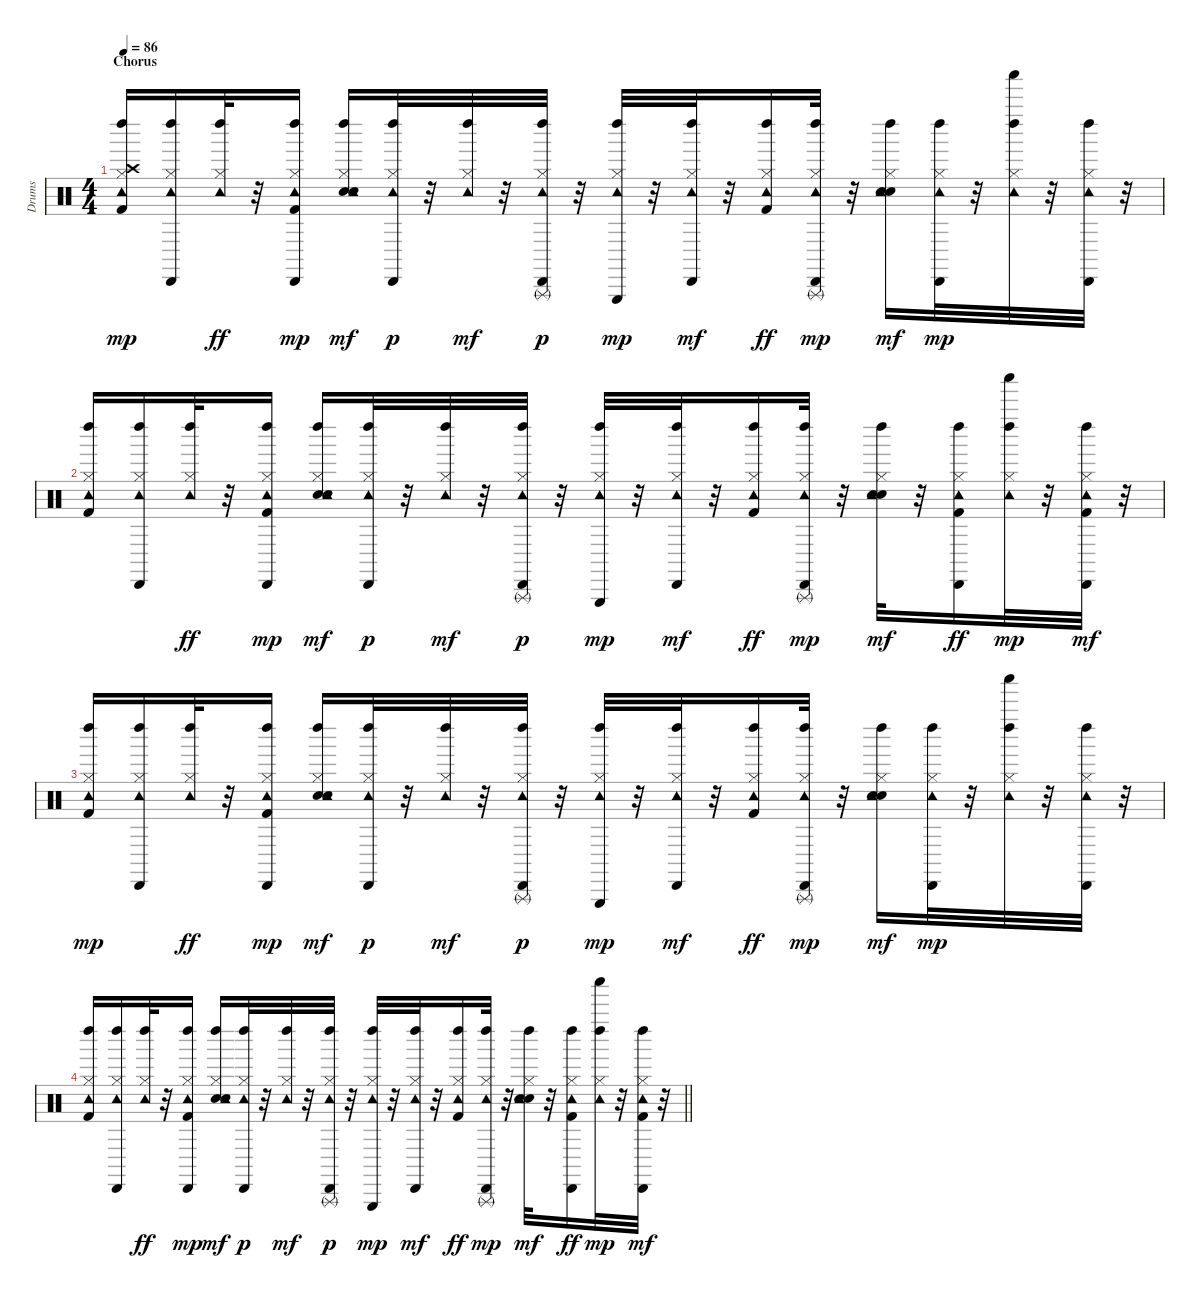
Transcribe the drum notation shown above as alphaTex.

\track ("Drums" "Drums") {instrument percussion}
\staff {score}
\articulation defaults
\ts (4 4)
\section ("" "Chorus")
\tempo 86
\clef neutral
\ks c
("Hi-Hat (closed)" "Crash high (hit)" "Tambourine (hit)" "Left Maraca (hit)" "Kick (hit) 2").16{dy mp} ("Hi-Hat (closed)" "Tambourine (hit)" "Cabasa (hit)" "Left Maraca (hit)").16 ("Hi-Hat (closed)" "Tambourine (hit)" "Left Maraca (hit)").32{dy ff} r.32 ("Hi-Hat (closed)" "Tambourine (hit)" "Cabasa (hit)" "Left Maraca (hit)" "Kick (hit) 2").16{dy mp} ("Hi-Hat (closed)" "Hand Clap (hit)" "Tambourine (hit)" "Left Maraca (hit)" "Electric Snare (hit)").16{dy mf} ("Hi-Hat (closed)" "Tambourine (hit)" "Cabasa (hit)" "Left Maraca (hit)").32{dy p} r.32 ("Hi-Hat (closed)" "Tambourine (hit)" "Left Maraca (hit)").32{dy mf} r.32 ("Hi-Hat (closed)" "Tambourine (hit)" "Cabasa (hit)" "Left Maraca (hit)" "Triangle (rnute)").32{dy p} r.32 ("Hi-Hat (closed)" "Tambourine (hit)" "Left Maraca (hit)" "Triangle (hit)").32{dy mp} r.32 ("Hi-Hat (closed)" "Tambourine (hit)" "Cabasa (hit)" "Left Maraca (hit)").32{dy mf} r.32 ("Hi-Hat (closed)" "Tambourine (hit)" "Left Maraca (hit)" "Kick (hit) 2").16{dy ff} ("Hi-Hat (closed)" "Tambourine (hit)" "Cabasa (hit)" "Left Maraca (hit)" "Triangle (rnute)").32{dy mp} r.32 ("Hi-Hat (closed)" "Hand Clap (hit)" "Tambourine (hit)" "Left Maraca (hit)" "Electric Snare (hit)").16{dy mf} ("Hi-Hat (closed)" "Tambourine (hit)" "Cabasa (hit)" "Left Maraca (hit)").32{dy mp} r.32 ("Hi-Hat (closed)" "Tambourine (hit)" "Left Maraca (hit)" "Shaker (hit)").32 r.32 ("Hi-Hat (closed)" "Tambourine (hit)" "Cabasa (hit)" "Left Maraca (hit)").32 r.32 |
("Hi-Hat (closed)" "Tambourine (hit)" "Left Maraca (hit)" "Kick (hit) 2").16 ("Hi-Hat (closed)" "Tambourine (hit)" "Cabasa (hit)" "Left Maraca (hit)").16 ("Hi-Hat (closed)" "Tambourine (hit)" "Left Maraca (hit)").32{dy ff} r.32 ("Hi-Hat (closed)" "Tambourine (hit)" "Cabasa (hit)" "Left Maraca (hit)" "Kick (hit) 2").16{dy mp} ("Hi-Hat (closed)" "Hand Clap (hit)" "Tambourine (hit)" "Left Maraca (hit)" "Electric Snare (hit)").16{dy mf} ("Hi-Hat (closed)" "Tambourine (hit)" "Cabasa (hit)" "Left Maraca (hit)").32{dy p} r.32 ("Hi-Hat (closed)" "Tambourine (hit)" "Left Maraca (hit)").32{dy mf} r.32 ("Hi-Hat (closed)" "Tambourine (hit)" "Cabasa (hit)" "Left Maraca (hit)" "Triangle (rnute)").32{dy p} r.32 ("Hi-Hat (closed)" "Tambourine (hit)" "Left Maraca (hit)" "Triangle (hit)").32{dy mp} r.32 ("Hi-Hat (closed)" "Tambourine (hit)" "Cabasa (hit)" "Left Maraca (hit)").32{dy mf} r.32 ("Hi-Hat (closed)" "Tambourine (hit)" "Left Maraca (hit)" "Kick (hit) 2").16{dy ff} ("Hi-Hat (closed)" "Tambourine (hit)" "Cabasa (hit)" "Left Maraca (hit)" "Triangle (rnute)").32{dy mp} r.32 ("Hi-Hat (closed)" "Hand Clap (hit)" "Tambourine (hit)" "Left Maraca (hit)" "Electric Snare (hit)").32{dy mf} r.32 ("Hi-Hat (closed)" "Tambourine (hit)" "Cabasa (hit)" "Left Maraca (hit)" "Kick (hit) 2").16{dy ff} ("Hi-Hat (closed)" "Tambourine (hit)" "Left Maraca (hit)" "Shaker (hit)").32{dy mp} r.32 ("Hi-Hat (closed)" "Tambourine (hit)" "Cabasa (hit)" "Left Maraca (hit)" "Kick (hit) 2").32{dy mf} r.32 |
("Hi-Hat (closed)" "Tambourine (hit)" "Left Maraca (hit)" "Kick (hit) 2").16{dy mp} ("Hi-Hat (closed)" "Tambourine (hit)" "Cabasa (hit)" "Left Maraca (hit)").16 ("Hi-Hat (closed)" "Tambourine (hit)" "Left Maraca (hit)").32{dy ff} r.32 ("Hi-Hat (closed)" "Tambourine (hit)" "Cabasa (hit)" "Left Maraca (hit)" "Kick (hit) 2").16{dy mp} ("Hi-Hat (closed)" "Hand Clap (hit)" "Tambourine (hit)" "Left Maraca (hit)" "Electric Snare (hit)").16{dy mf} ("Hi-Hat (closed)" "Tambourine (hit)" "Cabasa (hit)" "Left Maraca (hit)").32{dy p} r.32 ("Hi-Hat (closed)" "Tambourine (hit)" "Left Maraca (hit)").32{dy mf} r.32 ("Hi-Hat (closed)" "Tambourine (hit)" "Cabasa (hit)" "Left Maraca (hit)" "Triangle (rnute)").32{dy p} r.32 ("Hi-Hat (closed)" "Tambourine (hit)" "Left Maraca (hit)" "Triangle (hit)").32{dy mp} r.32 ("Hi-Hat (closed)" "Tambourine (hit)" "Cabasa (hit)" "Left Maraca (hit)").32{dy mf} r.32 ("Hi-Hat (closed)" "Tambourine (hit)" "Left Maraca (hit)" "Kick (hit) 2").16{dy ff} ("Hi-Hat (closed)" "Tambourine (hit)" "Cabasa (hit)" "Left Maraca (hit)" "Triangle (rnute)").32{dy mp} r.32 ("Hi-Hat (closed)" "Hand Clap (hit)" "Tambourine (hit)" "Left Maraca (hit)" "Electric Snare (hit)").16{dy mf} ("Hi-Hat (closed)" "Tambourine (hit)" "Cabasa (hit)" "Left Maraca (hit)").32{dy mp} r.32 ("Hi-Hat (closed)" "Tambourine (hit)" "Left Maraca (hit)" "Shaker (hit)").32 r.32 ("Hi-Hat (closed)" "Tambourine (hit)" "Cabasa (hit)" "Left Maraca (hit)").32 r.32 |
\barLineRight lightlight
("Hi-Hat (closed)" "Tambourine (hit)" "Left Maraca (hit)" "Kick (hit) 2").16 ("Hi-Hat (closed)" "Tambourine (hit)" "Cabasa (hit)" "Left Maraca (hit)").16 ("Hi-Hat (closed)" "Tambourine (hit)" "Left Maraca (hit)").32{dy ff} r.32 ("Hi-Hat (closed)" "Tambourine (hit)" "Cabasa (hit)" "Left Maraca (hit)" "Kick (hit) 2").16{dy mp} ("Hi-Hat (closed)" "Hand Clap (hit)" "Tambourine (hit)" "Left Maraca (hit)" "Electric Snare (hit)").16{dy mf} ("Hi-Hat (closed)" "Tambourine (hit)" "Cabasa (hit)" "Left Maraca (hit)").32{dy p} r.32 ("Hi-Hat (closed)" "Tambourine (hit)" "Left Maraca (hit)").32{dy mf} r.32 ("Hi-Hat (closed)" "Tambourine (hit)" "Cabasa (hit)" "Left Maraca (hit)" "Triangle (rnute)").32{dy p} r.32 ("Hi-Hat (closed)" "Tambourine (hit)" "Left Maraca (hit)" "Triangle (hit)").32{dy mp} r.32 ("Hi-Hat (closed)" "Tambourine (hit)" "Cabasa (hit)" "Left Maraca (hit)").32{dy mf} r.32 ("Hi-Hat (closed)" "Tambourine (hit)" "Left Maraca (hit)" "Kick (hit) 2").16{dy ff} ("Hi-Hat (closed)" "Tambourine (hit)" "Cabasa (hit)" "Left Maraca (hit)" "Triangle (rnute)").32{dy mp} r.32 ("Hi-Hat (closed)" "Hand Clap (hit)" "Tambourine (hit)" "Left Maraca (hit)" "Electric Snare (hit)").32{dy mf} r.32 ("Hi-Hat (closed)" "Tambourine (hit)" "Cabasa (hit)" "Left Maraca (hit)" "Kick (hit) 2").16{dy ff} ("Hi-Hat (closed)" "Tambourine (hit)" "Left Maraca (hit)" "Shaker (hit)").32{dy mp} r.32 ("Hi-Hat (closed)" "Tambourine (hit)" "Cabasa (hit)" "Left Maraca (hit)" "Kick (hit) 2").32{dy mf} r.32
